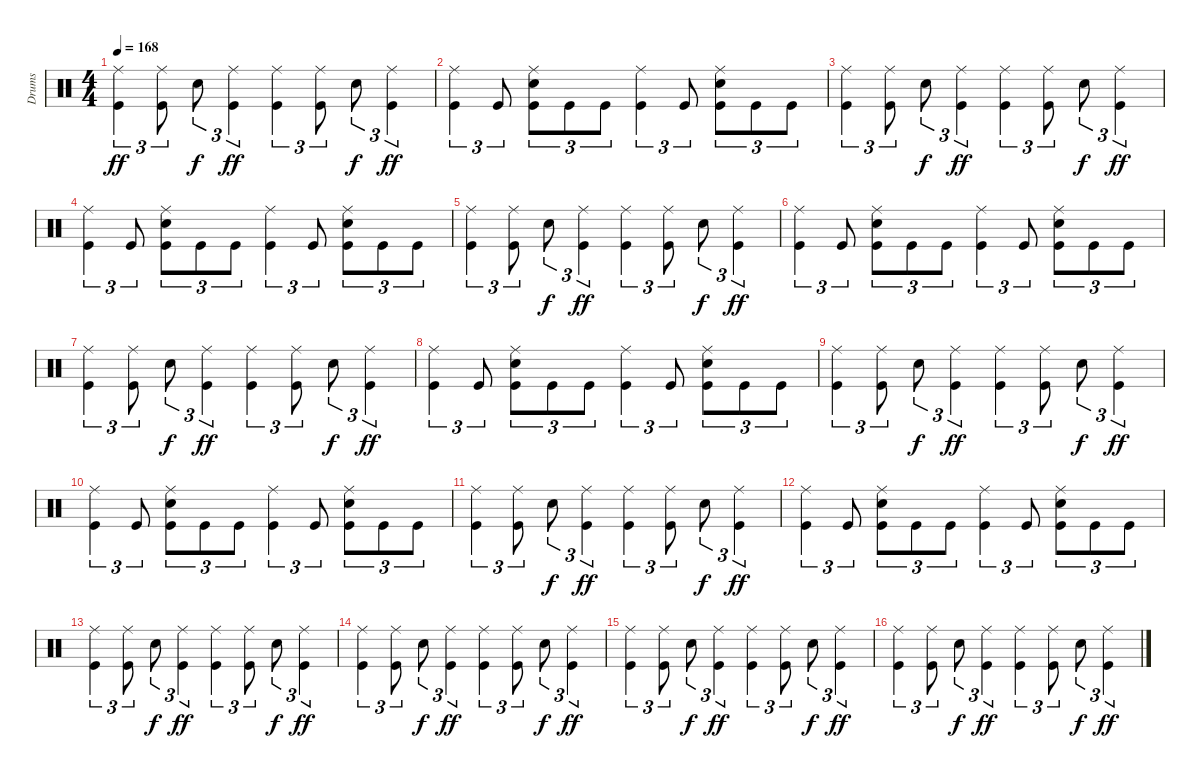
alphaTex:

\track ("Drums" "Drums") {instrument percussion}
\staff {score}
\articulation defaults
\ts (4 4)
\tempo 168
\clef neutral
\ks c
("Ride (middle)" "Kick (hit)").4{tu (3 2) dy ff} ("Ride (middle)" "Kick (hit)").8{tu (3 2)} "Electric Snare (hit)".8{tu (3 2) dy f} ("Ride (middle)" "Kick (hit)").4{tu (3 2) dy ff} ("Ride (middle)" "Kick (hit)").4{tu (3 2)} ("Ride (middle)" "Kick (hit)").8{tu (3 2)} "Electric Snare (hit)".8{tu (3 2) dy f} ("Ride (middle)" "Kick (hit)").4{tu (3 2) dy ff} |
("Ride (middle)" "Kick (hit)").4{tu (3 2)} "Kick (hit)".8{tu (3 2)} ("Ride (middle)" "Electric Snare (hit)" "Kick (hit)").8{tu (3 2)} "Kick (hit)".8{tu (3 2)} "Kick (hit)".8{tu (3 2)} ("Ride (middle)" "Kick (hit)").4{tu (3 2)} "Kick (hit)".8{tu (3 2)} ("Ride (middle)" "Electric Snare (hit)" "Kick (hit)").8{tu (3 2)} "Kick (hit)".8{tu (3 2)} "Kick (hit)".8{tu (3 2)} |
("Ride (middle)" "Kick (hit)").4{tu (3 2)} ("Ride (middle)" "Kick (hit)").8{tu (3 2)} "Electric Snare (hit)".8{tu (3 2) dy f} ("Ride (middle)" "Kick (hit)").4{tu (3 2) dy ff} ("Ride (middle)" "Kick (hit)").4{tu (3 2)} ("Ride (middle)" "Kick (hit)").8{tu (3 2)} "Electric Snare (hit)".8{tu (3 2) dy f} ("Ride (middle)" "Kick (hit)").4{tu (3 2) dy ff} |
("Ride (middle)" "Kick (hit)").4{tu (3 2)} "Kick (hit)".8{tu (3 2)} ("Ride (middle)" "Electric Snare (hit)" "Kick (hit)").8{tu (3 2)} "Kick (hit)".8{tu (3 2)} "Kick (hit)".8{tu (3 2)} ("Ride (middle)" "Kick (hit)").4{tu (3 2)} "Kick (hit)".8{tu (3 2)} ("Ride (middle)" "Electric Snare (hit)" "Kick (hit)").8{tu (3 2)} "Kick (hit)".8{tu (3 2)} "Kick (hit)".8{tu (3 2)} |
("Ride (middle)" "Kick (hit)").4{tu (3 2)} ("Ride (middle)" "Kick (hit)").8{tu (3 2)} "Electric Snare (hit)".8{tu (3 2) dy f} ("Ride (middle)" "Kick (hit)").4{tu (3 2) dy ff} ("Ride (middle)" "Kick (hit)").4{tu (3 2)} ("Ride (middle)" "Kick (hit)").8{tu (3 2)} "Electric Snare (hit)".8{tu (3 2) dy f} ("Ride (middle)" "Kick (hit)").4{tu (3 2) dy ff} |
("Ride (middle)" "Kick (hit)").4{tu (3 2)} "Kick (hit)".8{tu (3 2)} ("Ride (middle)" "Electric Snare (hit)" "Kick (hit)").8{tu (3 2)} "Kick (hit)".8{tu (3 2)} "Kick (hit)".8{tu (3 2)} ("Ride (middle)" "Kick (hit)").4{tu (3 2)} "Kick (hit)".8{tu (3 2)} ("Ride (middle)" "Electric Snare (hit)" "Kick (hit)").8{tu (3 2)} "Kick (hit)".8{tu (3 2)} "Kick (hit)".8{tu (3 2)} |
("Ride (middle)" "Kick (hit)").4{tu (3 2)} ("Ride (middle)" "Kick (hit)").8{tu (3 2)} "Electric Snare (hit)".8{tu (3 2) dy f} ("Ride (middle)" "Kick (hit)").4{tu (3 2) dy ff} ("Ride (middle)" "Kick (hit)").4{tu (3 2)} ("Ride (middle)" "Kick (hit)").8{tu (3 2)} "Electric Snare (hit)".8{tu (3 2) dy f} ("Ride (middle)" "Kick (hit)").4{tu (3 2) dy ff} |
("Ride (middle)" "Kick (hit)").4{tu (3 2)} "Kick (hit)".8{tu (3 2)} ("Ride (middle)" "Electric Snare (hit)" "Kick (hit)").8{tu (3 2)} "Kick (hit)".8{tu (3 2)} "Kick (hit)".8{tu (3 2)} ("Ride (middle)" "Kick (hit)").4{tu (3 2)} "Kick (hit)".8{tu (3 2)} ("Ride (middle)" "Electric Snare (hit)" "Kick (hit)").8{tu (3 2)} "Kick (hit)".8{tu (3 2)} "Kick (hit)".8{tu (3 2)} |
("Ride (middle)" "Kick (hit)").4{tu (3 2)} ("Ride (middle)" "Kick (hit)").8{tu (3 2)} "Electric Snare (hit)".8{tu (3 2) dy f} ("Ride (middle)" "Kick (hit)").4{tu (3 2) dy ff} ("Ride (middle)" "Kick (hit)").4{tu (3 2)} ("Ride (middle)" "Kick (hit)").8{tu (3 2)} "Electric Snare (hit)".8{tu (3 2) dy f} ("Ride (middle)" "Kick (hit)").4{tu (3 2) dy ff} |
("Ride (middle)" "Kick (hit)").4{tu (3 2)} "Kick (hit)".8{tu (3 2)} ("Ride (middle)" "Electric Snare (hit)" "Kick (hit)").8{tu (3 2)} "Kick (hit)".8{tu (3 2)} "Kick (hit)".8{tu (3 2)} ("Ride (middle)" "Kick (hit)").4{tu (3 2)} "Kick (hit)".8{tu (3 2)} ("Ride (middle)" "Electric Snare (hit)" "Kick (hit)").8{tu (3 2)} "Kick (hit)".8{tu (3 2)} "Kick (hit)".8{tu (3 2)} |
("Ride (middle)" "Kick (hit)").4{tu (3 2)} ("Ride (middle)" "Kick (hit)").8{tu (3 2)} "Electric Snare (hit)".8{tu (3 2) dy f} ("Ride (middle)" "Kick (hit)").4{tu (3 2) dy ff} ("Ride (middle)" "Kick (hit)").4{tu (3 2)} ("Ride (middle)" "Kick (hit)").8{tu (3 2)} "Electric Snare (hit)".8{tu (3 2) dy f} ("Ride (middle)" "Kick (hit)").4{tu (3 2) dy ff} |
("Ride (middle)" "Kick (hit)").4{tu (3 2)} "Kick (hit)".8{tu (3 2)} ("Ride (middle)" "Electric Snare (hit)" "Kick (hit)").8{tu (3 2)} "Kick (hit)".8{tu (3 2)} "Kick (hit)".8{tu (3 2)} ("Ride (middle)" "Kick (hit)").4{tu (3 2)} "Kick (hit)".8{tu (3 2)} ("Ride (middle)" "Electric Snare (hit)" "Kick (hit)").8{tu (3 2)} "Kick (hit)".8{tu (3 2)} "Kick (hit)".8{tu (3 2)} |
("Ride (middle)" "Kick (hit)").4{tu (3 2)} ("Ride (middle)" "Kick (hit)").8{tu (3 2)} "Electric Snare (hit)".8{tu (3 2) dy f} ("Ride (middle)" "Kick (hit)").4{tu (3 2) dy ff} ("Ride (middle)" "Kick (hit)").4{tu (3 2)} ("Ride (middle)" "Kick (hit)").8{tu (3 2)} "Electric Snare (hit)".8{tu (3 2) dy f} ("Ride (middle)" "Kick (hit)").4{tu (3 2) dy ff} |
("Ride (middle)" "Kick (hit)").4{tu (3 2)} ("Ride (middle)" "Kick (hit)").8{tu (3 2)} "Electric Snare (hit)".8{tu (3 2) dy f} ("Ride (middle)" "Kick (hit)").4{tu (3 2) dy ff} ("Ride (middle)" "Kick (hit)").4{tu (3 2)} ("Ride (middle)" "Kick (hit)").8{tu (3 2)} "Electric Snare (hit)".8{tu (3 2) dy f} ("Ride (middle)" "Kick (hit)").4{tu (3 2) dy ff} |
("Ride (middle)" "Kick (hit)").4{tu (3 2)} ("Ride (middle)" "Kick (hit)").8{tu (3 2)} "Electric Snare (hit)".8{tu (3 2) dy f} ("Ride (middle)" "Kick (hit)").4{tu (3 2) dy ff} ("Ride (middle)" "Kick (hit)").4{tu (3 2)} ("Ride (middle)" "Kick (hit)").8{tu (3 2)} "Electric Snare (hit)".8{tu (3 2) dy f} ("Ride (middle)" "Kick (hit)").4{tu (3 2) dy ff} |
("Ride (middle)" "Kick (hit)").4{tu (3 2)} ("Ride (middle)" "Kick (hit)").8{tu (3 2)} "Electric Snare (hit)".8{tu (3 2) dy f} ("Ride (middle)" "Kick (hit)").4{tu (3 2) dy ff} ("Ride (middle)" "Kick (hit)").4{tu (3 2)} ("Ride (middle)" "Kick (hit)").8{tu (3 2)} "Electric Snare (hit)".8{tu (3 2) dy f} ("Ride (middle)" "Kick (hit)").4{tu (3 2) dy ff}
